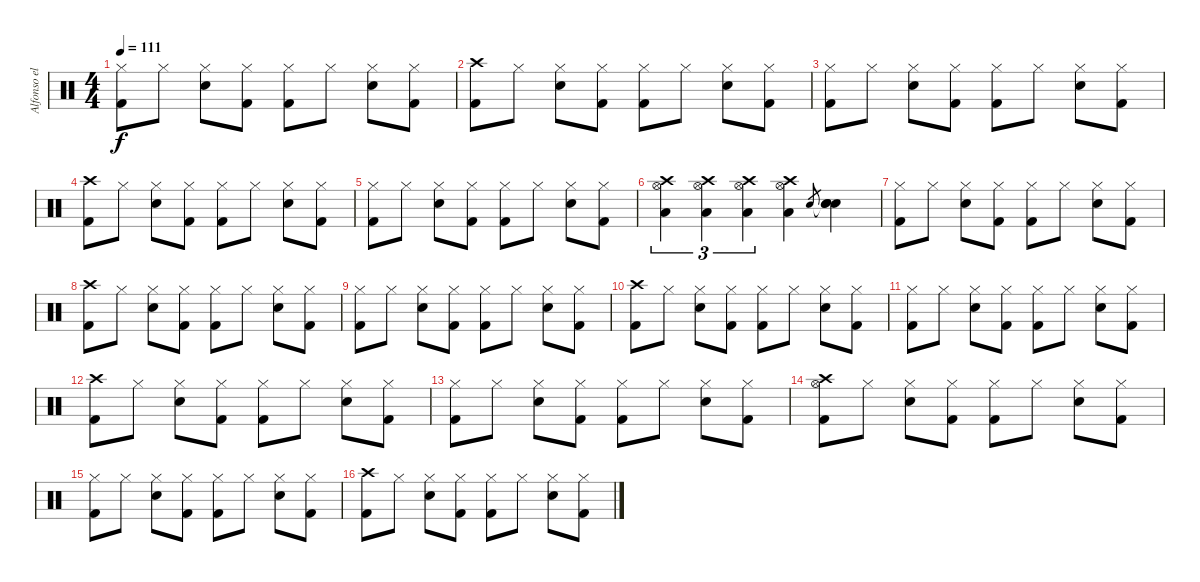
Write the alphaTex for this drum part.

\track ("Alfonso el flaco Andre" "Alfonso el") {instrument percussion}
\staff {score}
\articulation defaults
\ts (4 4)
\tempo 111
\clef neutral
\ks c
("Hi-Hat (closed)" "Kick (hit) 2").8{dy f} "Hi-Hat (closed)".8 ("Hi-Hat (closed)" "Snare (hit) 2").8 ("Hi-Hat (closed)" "Kick (hit) 2").8 ("Hi-Hat (closed)" "Kick (hit) 2").8 "Hi-Hat (closed)".8 ("Hi-Hat (closed)" "Snare (hit) 2").8 ("Hi-Hat (closed)" "Kick (hit) 2").8 |
("Crash high (hit)" "Kick (hit) 2").8 "Hi-Hat (closed)".8 ("Hi-Hat (closed)" "Snare (hit) 2").8 ("Hi-Hat (closed)" "Kick (hit) 2").8 ("Hi-Hat (closed)" "Kick (hit) 2").8 "Hi-Hat (closed)".8 ("Hi-Hat (closed)" "Snare (hit) 2").8 ("Hi-Hat (closed)" "Kick (hit) 2").8 |
("Hi-Hat (closed)" "Kick (hit) 2").8 "Hi-Hat (closed)".8 ("Hi-Hat (closed)" "Snare (hit) 2").8 ("Hi-Hat (closed)" "Kick (hit) 2").8 ("Hi-Hat (closed)" "Kick (hit) 2").8 "Hi-Hat (closed)".8 ("Hi-Hat (closed)" "Snare (hit) 2").8 ("Hi-Hat (closed)" "Kick (hit) 2").8 |
("Crash high (hit)" "Kick (hit) 2").8 "Hi-Hat (closed)".8 ("Hi-Hat (closed)" "Snare (hit) 2").8 ("Hi-Hat (closed)" "Kick (hit) 2").8 ("Hi-Hat (closed)" "Kick (hit) 2").8 "Hi-Hat (closed)".8 ("Hi-Hat (closed)" "Snare (hit) 2").8 ("Hi-Hat (closed)" "Kick (hit) 2").8 |
("Hi-Hat (closed)" "Kick (hit) 2").8 "Hi-Hat (closed)".8 ("Hi-Hat (closed)" "Snare (hit) 2").8 ("Hi-Hat (closed)" "Kick (hit) 2").8 ("Hi-Hat (closed)" "Kick (hit) 2").8 "Hi-Hat (closed)".8 ("Hi-Hat (closed)" "Snare (hit) 2").8 ("Hi-Hat (closed)" "Kick (hit) 2").8 |
("Hi-Hat (open)" "Crash high (hit)" "Low Floor Tom (hit)").4{tu (3 2)} ("Hi-Hat (open)" "Crash high (hit)" "Low Floor Tom (hit)").4{tu (3 2)} ("Hi-Hat (open)" "Crash high (hit)" "Low Floor Tom (hit)").4{tu (3 2)} ("Hi-Hat (open)" "Crash high (hit)" "Low Floor Tom (hit)").4 "Snare (hit) 2".8{gr} ("Snare (hit)"{t} "Snare (hit) 2" "Snare (hit) 2").4 |
("Hi-Hat (closed)" "Kick (hit) 2").8 "Hi-Hat (closed)".8 ("Hi-Hat (closed)" "Snare (hit) 2").8 ("Hi-Hat (closed)" "Kick (hit) 2").8 ("Hi-Hat (closed)" "Kick (hit) 2").8 "Hi-Hat (closed)".8 ("Hi-Hat (closed)" "Snare (hit) 2").8 ("Hi-Hat (closed)" "Kick (hit) 2").8 |
("Crash high (hit)" "Kick (hit) 2").8 "Hi-Hat (closed)".8 ("Hi-Hat (closed)" "Snare (hit) 2").8 ("Hi-Hat (closed)" "Kick (hit) 2").8 ("Hi-Hat (closed)" "Kick (hit) 2").8 "Hi-Hat (closed)".8 ("Hi-Hat (closed)" "Snare (hit) 2").8 ("Hi-Hat (closed)" "Kick (hit) 2").8 |
("Hi-Hat (closed)" "Kick (hit) 2").8 "Hi-Hat (closed)".8 ("Hi-Hat (closed)" "Snare (hit) 2").8 ("Hi-Hat (closed)" "Kick (hit) 2").8 ("Hi-Hat (closed)" "Kick (hit) 2").8 "Hi-Hat (closed)".8 ("Hi-Hat (closed)" "Snare (hit) 2").8 ("Hi-Hat (closed)" "Kick (hit) 2").8 |
("Crash high (hit)" "Kick (hit) 2").8 "Hi-Hat (closed)".8 ("Hi-Hat (closed)" "Snare (hit) 2").8 ("Hi-Hat (closed)" "Kick (hit) 2").8 ("Hi-Hat (closed)" "Kick (hit) 2").8 "Hi-Hat (closed)".8 ("Hi-Hat (closed)" "Snare (hit) 2").8 ("Hi-Hat (closed)" "Kick (hit) 2").8 |
("Hi-Hat (closed)" "Kick (hit) 2").8 "Hi-Hat (closed)".8 ("Hi-Hat (closed)" "Snare (hit) 2").8 ("Hi-Hat (closed)" "Kick (hit) 2").8 ("Hi-Hat (closed)" "Kick (hit) 2").8 "Hi-Hat (closed)".8 ("Hi-Hat (closed)" "Snare (hit) 2").8 ("Hi-Hat (closed)" "Kick (hit) 2").8 |
("Crash high (hit)" "Kick (hit) 2").8 "Hi-Hat (closed)".8 ("Hi-Hat (closed)" "Snare (hit) 2").8 ("Hi-Hat (closed)" "Kick (hit) 2").8 ("Hi-Hat (closed)" "Kick (hit) 2").8 "Hi-Hat (closed)".8 ("Hi-Hat (closed)" "Snare (hit) 2").8 ("Hi-Hat (closed)" "Kick (hit) 2").8 |
("Hi-Hat (closed)" "Kick (hit) 2").8 "Hi-Hat (closed)".8 ("Hi-Hat (closed)" "Snare (hit) 2").8 ("Hi-Hat (closed)" "Kick (hit) 2").8 ("Hi-Hat (closed)" "Kick (hit) 2").8 "Hi-Hat (closed)".8 ("Hi-Hat (closed)" "Snare (hit) 2").8 ("Hi-Hat (closed)" "Kick (hit) 2").8 |
("Crash high (hit)" "Kick (hit) 2" "Hi-Hat (open)").8 "Hi-Hat (closed)".8 ("Hi-Hat (closed)" "Snare (hit) 2").8 ("Hi-Hat (closed)" "Kick (hit) 2").8 ("Hi-Hat (closed)" "Kick (hit) 2").8 "Hi-Hat (closed)".8 ("Hi-Hat (closed)" "Snare (hit) 2").8 ("Hi-Hat (closed)" "Kick (hit) 2").8 |
("Hi-Hat (closed)" "Kick (hit) 2").8 "Hi-Hat (closed)".8 ("Hi-Hat (closed)" "Snare (hit) 2").8 ("Hi-Hat (closed)" "Kick (hit) 2").8 ("Hi-Hat (closed)" "Kick (hit) 2").8 "Hi-Hat (closed)".8 ("Hi-Hat (closed)" "Snare (hit) 2").8 ("Hi-Hat (closed)" "Kick (hit) 2").8 |
("Crash high (hit)" "Kick (hit) 2").8 "Hi-Hat (closed)".8 ("Hi-Hat (closed)" "Snare (hit) 2").8 ("Hi-Hat (closed)" "Kick (hit) 2").8 ("Hi-Hat (closed)" "Kick (hit) 2").8 "Hi-Hat (closed)".8 ("Hi-Hat (closed)" "Snare (hit) 2").8 ("Hi-Hat (closed)" "Kick (hit) 2").8
